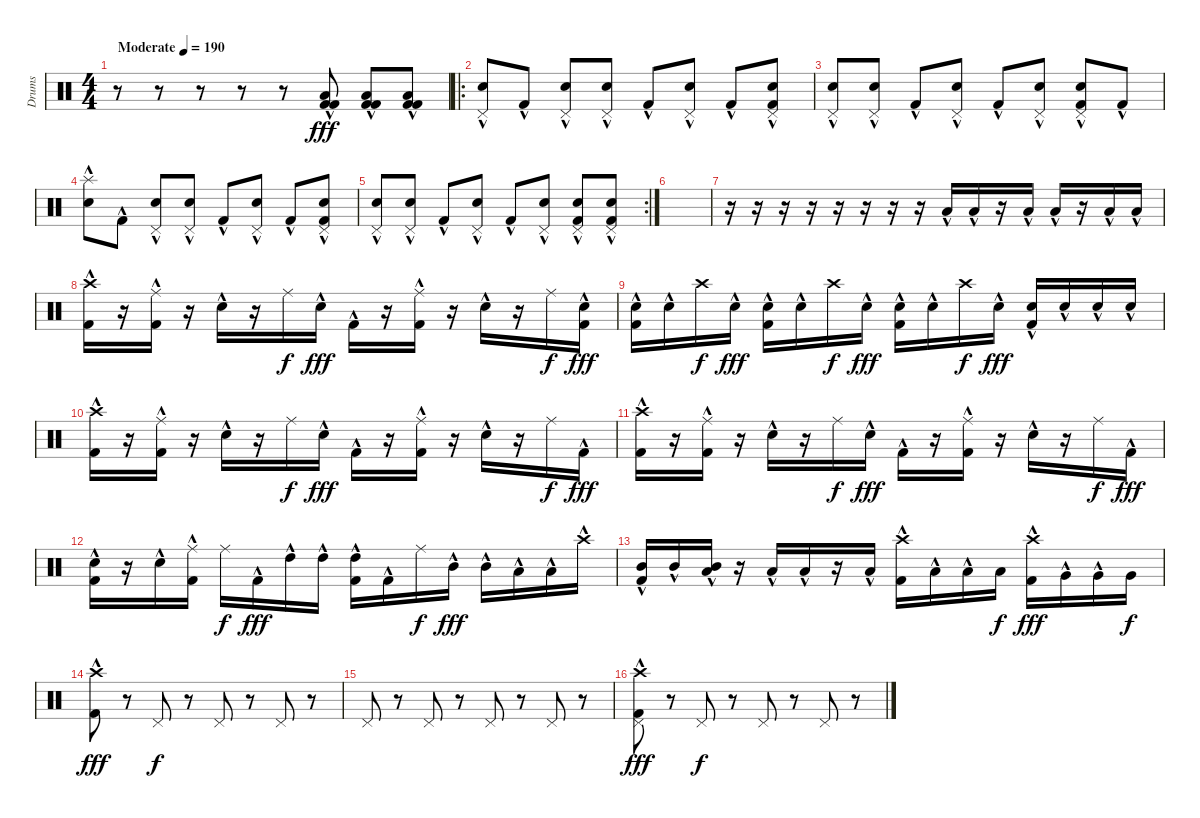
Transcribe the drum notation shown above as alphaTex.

\track ("Drums" "Drums") {instrument percussion}
\staff {score}
\articulation defaults
\ts (4 4)
\tempo (190 "Moderate")
\clef neutral
\ks c
r.8{dy fff} r.8 r.8 r.8 r.8 ("Low Floor Tom (hit)"{hac} "Kick (hit) 2"{hac} "Kick (hit) 2").8 ("Low Floor Tom (hit)"{hac} "Kick (hit) 2"{hac} "Kick (hit) 2"{hac}).8 ("Low Floor Tom (hit)"{hac} "Kick (hit) 2"{hac} "Kick (hit) 2"{hac}).8 |
\ro
("Snare (hit) 2"{hac} "Pedal Hi-Hat (hit)").8 "Kick (hit) 2"{hac}.8 ("Snare (hit) 2"{hac} "Pedal Hi-Hat (hit)").8 ("Snare (hit) 2"{hac} "Pedal Hi-Hat (hit)").8 "Kick (hit) 2"{hac}.8 ("Snare (hit) 2"{hac} "Pedal Hi-Hat (hit)").8 "Kick (hit) 2"{hac}.8 ("Snare (hit) 2"{hac} "Pedal Hi-Hat (hit)" "Kick (hit) 2"{hac}).8 |
("Snare (hit) 2"{hac} "Pedal Hi-Hat (hit)").8 ("Snare (hit) 2"{hac} "Pedal Hi-Hat (hit)").8 "Kick (hit) 2"{hac}.8 ("Snare (hit) 2"{hac} "Pedal Hi-Hat (hit)").8 "Kick (hit) 2"{hac}.8 ("Snare (hit) 2"{hac} "Pedal Hi-Hat (hit)").8 ("Snare (hit) 2"{hac} "Pedal Hi-Hat (hit)" "Kick (hit) 2"{hac}).8 "Kick (hit) 2"{hac}.8 |
("Splash (hit)" "Snare (hit) 2"{hac}).8 "Kick (hit) 2"{hac}.8 ("Snare (hit) 2"{hac} "Pedal Hi-Hat (hit)").8 ("Snare (hit) 2"{hac} "Pedal Hi-Hat (hit)").8 "Kick (hit) 2"{hac}.8 ("Snare (hit) 2"{hac} "Pedal Hi-Hat (hit)").8 "Kick (hit) 2"{hac}.8 ("Snare (hit) 2"{hac} "Pedal Hi-Hat (hit)" "Kick (hit) 2"{hac}).8 |
\rc 2
("Snare (hit) 2"{hac} "Pedal Hi-Hat (hit)").8 ("Snare (hit) 2"{hac} "Pedal Hi-Hat (hit)").8 "Kick (hit) 2"{hac}.8 ("Snare (hit) 2"{hac} "Pedal Hi-Hat (hit)").8 "Kick (hit) 2"{hac}.8 ("Snare (hit) 2"{hac} "Pedal Hi-Hat (hit)").8 ("Snare (hit) 2"{hac} "Pedal Hi-Hat (hit)" "Kick (hit) 2"{hac}).8 ("Snare (hit) 2"{hac} "Pedal Hi-Hat (hit)" "Kick (hit) 2"{hac}).8 |
|
r.16 r.16 r.16 r.16 r.16 r.16 r.16 r.16 "Low Floor Tom (hit)"{hac}.16 "Low Floor Tom (hit)"{hac}.16 r.16 "Low Floor Tom (hit)"{hac}.16 "Low Floor Tom (hit)"{hac}.16 r.16 "Low Floor Tom (hit)"{hac}.16 "Low Floor Tom (hit)"{hac}.16 |
("Crash high (hit)" "Kick (hit) 2"{hac}).16 r.16 ("Ride (middle)" "Kick (hit) 2"{hac}).16 r.16 "Snare (hit) 2"{hac}.16 r.16 "Ride (middle)".16{dy f} "Snare (hit) 2"{hac}.16{dy fff} "Kick (hit) 2"{hac}.16 r.16 ("Ride (middle)" "Kick (hit) 2"{hac}).16 r.16 "Snare (hit) 2"{hac}.16 r.16 "Ride (middle)".16{dy f} ("Snare (hit) 2" "Kick (hit) 2"{hac}).16{dy fff} |
("Snare (hit) 2"{hac} "Kick (hit) 2"{hac}).16 "Snare (hit) 2"{hac}.16 "Crash high (hit)".16{dy f} "Snare (hit) 2"{hac}.16{dy fff} ("Snare (hit) 2"{hac} "Kick (hit) 2"{hac}).16 "Snare (hit) 2"{hac}.16 "Crash high (hit)".16{dy f} "Snare (hit) 2"{hac}.16{dy fff} ("Snare (hit) 2"{hac} "Kick (hit) 2"{hac}).16 "Snare (hit) 2"{hac}.16 "Crash high (hit)".16{dy f} "Snare (hit) 2"{hac}.16{dy fff} ("Snare (hit) 2"{hac} "Kick (hit) 2"{hac}).16 "Snare (hit) 2"{hac}.16 "Snare (hit) 2"{hac}.16 "Snare (hit) 2"{hac}.16 |
("Crash high (hit)" "Kick (hit) 2"{hac}).16 r.16 ("Ride (middle)" "Kick (hit) 2"{hac}).16 r.16 "Snare (hit) 2"{hac}.16 r.16 "Ride (middle)".16{dy f} "Snare (hit) 2"{hac}.16{dy fff} "Kick (hit) 2"{hac}.16 r.16 ("Ride (middle)" "Kick (hit) 2"{hac}).16 r.16 "Snare (hit) 2"{hac}.16 r.16 "Ride (middle)".16{dy f} "Kick (hit) 2"{hac}.16{dy fff} |
("Crash high (hit)" "Kick (hit) 2"{hac}).16 r.16 ("Ride (middle)" "Kick (hit) 2"{hac}).16 r.16 "Snare (hit) 2"{hac}.16 r.16 "Ride (middle)".16{dy f} "Snare (hit) 2"{hac}.16{dy fff} "Kick (hit) 2"{hac}.16 r.16 ("Ride (middle)" "Kick (hit) 2"{hac}).16 r.16 "Snare (hit) 2"{hac}.16 r.16 "Ride (middle)".16{dy f} "Kick (hit) 2"{hac}.16{dy fff} |
("Snare (hit) 2" "Kick (hit) 2"{hac}).16 r.16 "Snare (hit) 2"{hac}.16 ("Ride (middle)" "Kick (hit) 2"{hac}).16 "Ride (middle)".16{dy f} "Kick (hit) 2"{hac}.16{dy fff} "High Tom (hit)"{hac}.16 "High Tom (hit)"{hac}.16 ("High Tom (hit)"{hac} "Kick (hit) 2"{hac}).16 "Kick (hit) 2"{hac}.16 "Ride (middle)".16{dy f} "Mid Tom (hit)"{hac}.16{dy fff} "Mid Tom (hit)"{hac}.16 "Low Tom (hit)"{hac}.16 "Low Tom (hit)"{hac}.16 "Crash high (hit)"{hac}.16 |
("Mid Tom (hit)"{hac} "Kick (hit) 2").16 "Mid Tom (hit)"{hac}.16 ("Mid Tom (hit)"{hac} "Low Tom (hit)"{hac}).16 r.16 "Low Tom (hit)"{hac}.16 "Low Tom (hit)"{hac}.16 r.16 "Low Tom (hit)"{hac}.16 ("Crash high (hit)" "Kick (hit) 2"{hac}).16 "Low Tom (hit)"{hac}.16 "Low Tom (hit)"{hac}.16 "Low Tom (hit)".16{dy f} ("Crash high (hit)" "Kick (hit) 2"{hac}).16{dy fff} "Very Low Tom (hit)"{hac}.16 "Very Low Tom (hit)"{hac}.16 "Very Low Tom (hit)".16{dy f} |
("Crash high (hit)" "Kick (hit) 2"{hac}).8{dy fff} r.8 "Pedal Hi-Hat (hit)".8{dy f} r.8 "Pedal Hi-Hat (hit)".8 r.8 "Pedal Hi-Hat (hit)".8 r.8 |
"Pedal Hi-Hat (hit)".8 r.8 "Pedal Hi-Hat (hit)".8 r.8 "Pedal Hi-Hat (hit)".8 r.8 "Pedal Hi-Hat (hit)".8 r.8 |
("Crash high (hit)"{hac} "Pedal Hi-Hat (hit)" "Kick (hit) 2"{hac}).8{dy fff} r.8 "Pedal Hi-Hat (hit)".8{dy f} r.8 "Pedal Hi-Hat (hit)".8 r.8 "Pedal Hi-Hat (hit)".8 r.8
